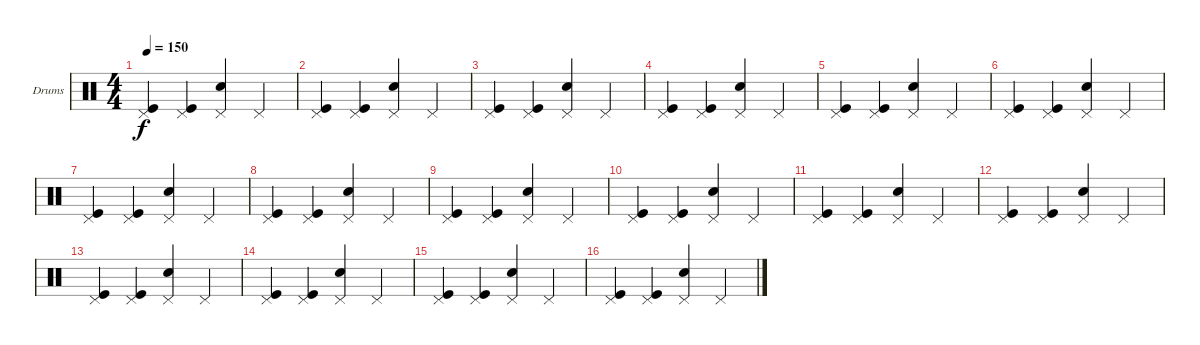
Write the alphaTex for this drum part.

\bracketExtendMode groupsimilarinstruments
\firstSystemTrackNameOrientation horizontal
\otherSystemsTrackNameOrientation horizontal
\track ("Drumkit" "Drums") {instrument percussion}
\staff {score}
\articulation defaults
\ts (4 4)
\tempo 150
\clef neutral
\ks c
("Pedal Hi-Hat (hit)" "Kick (hit)").4{dy f} ("Pedal Hi-Hat (hit)" "Kick (hit)").4 ("Pedal Hi-Hat (hit)" "Snare (hit) 2").4 "Pedal Hi-Hat (hit)".4 |
("Pedal Hi-Hat (hit)" "Kick (hit)").4 ("Pedal Hi-Hat (hit)" "Kick (hit)").4 ("Pedal Hi-Hat (hit)" "Snare (hit) 2").4 "Pedal Hi-Hat (hit)".4 |
("Pedal Hi-Hat (hit)" "Kick (hit)").4 ("Pedal Hi-Hat (hit)" "Kick (hit)").4 ("Pedal Hi-Hat (hit)" "Snare (hit) 2").4 "Pedal Hi-Hat (hit)".4 |
("Pedal Hi-Hat (hit)" "Kick (hit)").4 ("Pedal Hi-Hat (hit)" "Kick (hit)").4 ("Pedal Hi-Hat (hit)" "Snare (hit) 2").4 "Pedal Hi-Hat (hit)".4 |
("Pedal Hi-Hat (hit)" "Kick (hit)").4 ("Pedal Hi-Hat (hit)" "Kick (hit)").4 ("Pedal Hi-Hat (hit)" "Snare (hit) 2").4 "Pedal Hi-Hat (hit)".4 |
("Pedal Hi-Hat (hit)" "Kick (hit)").4 ("Pedal Hi-Hat (hit)" "Kick (hit)").4 ("Pedal Hi-Hat (hit)" "Snare (hit) 2").4 "Pedal Hi-Hat (hit)".4 |
("Pedal Hi-Hat (hit)" "Kick (hit)").4 ("Pedal Hi-Hat (hit)" "Kick (hit)").4 ("Pedal Hi-Hat (hit)" "Snare (hit) 2").4 "Pedal Hi-Hat (hit)".4 |
("Pedal Hi-Hat (hit)" "Kick (hit)").4 ("Pedal Hi-Hat (hit)" "Kick (hit)").4 ("Pedal Hi-Hat (hit)" "Snare (hit) 2").4 "Pedal Hi-Hat (hit)".4 |
("Pedal Hi-Hat (hit)" "Kick (hit)").4 ("Pedal Hi-Hat (hit)" "Kick (hit)").4 ("Pedal Hi-Hat (hit)" "Snare (hit) 2").4 "Pedal Hi-Hat (hit)".4 |
("Pedal Hi-Hat (hit)" "Kick (hit)").4 ("Pedal Hi-Hat (hit)" "Kick (hit)").4 ("Pedal Hi-Hat (hit)" "Snare (hit) 2").4 "Pedal Hi-Hat (hit)".4 |
("Pedal Hi-Hat (hit)" "Kick (hit)").4 ("Pedal Hi-Hat (hit)" "Kick (hit)").4 ("Pedal Hi-Hat (hit)" "Snare (hit) 2").4 "Pedal Hi-Hat (hit)".4 |
("Pedal Hi-Hat (hit)" "Kick (hit)").4 ("Pedal Hi-Hat (hit)" "Kick (hit)").4 ("Pedal Hi-Hat (hit)" "Snare (hit) 2").4 "Pedal Hi-Hat (hit)".4 |
("Pedal Hi-Hat (hit)" "Kick (hit)").4 ("Pedal Hi-Hat (hit)" "Kick (hit)").4 ("Pedal Hi-Hat (hit)" "Snare (hit) 2").4 "Pedal Hi-Hat (hit)".4 |
("Pedal Hi-Hat (hit)" "Kick (hit)").4 ("Pedal Hi-Hat (hit)" "Kick (hit)").4 ("Pedal Hi-Hat (hit)" "Snare (hit) 2").4 "Pedal Hi-Hat (hit)".4 |
("Pedal Hi-Hat (hit)" "Kick (hit)").4 ("Pedal Hi-Hat (hit)" "Kick (hit)").4 ("Pedal Hi-Hat (hit)" "Snare (hit) 2").4 "Pedal Hi-Hat (hit)".4 |
("Pedal Hi-Hat (hit)" "Kick (hit)").4 ("Pedal Hi-Hat (hit)" "Kick (hit)").4 ("Pedal Hi-Hat (hit)" "Snare (hit) 2").4 "Pedal Hi-Hat (hit)".4
